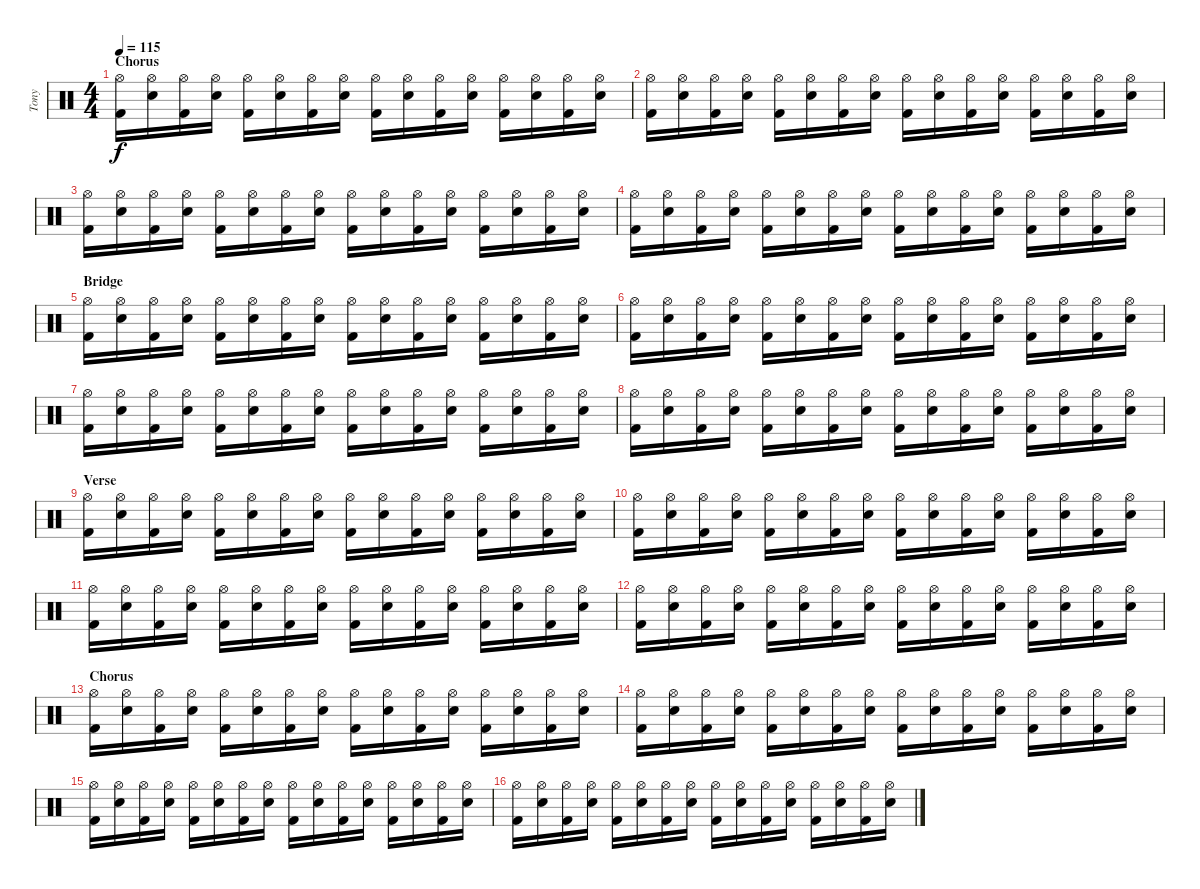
\track ("Tony" "Tony") {instrument percussion}
\staff {score}
\articulation defaults
\ts (4 4)
\section ("" "Chorus")
\tempo 115
\clef neutral
\ks c
("Kick (hit) 2" "Hi-Hat (open)").16{dy f} ("Electric Snare (hit)" "Hi-Hat (open)").16 ("Kick (hit) 2" "Hi-Hat (open)").16 ("Electric Snare (hit)" "Hi-Hat (open)").16 ("Kick (hit) 2" "Hi-Hat (open)").16 ("Electric Snare (hit)" "Hi-Hat (open)").16 ("Kick (hit) 2" "Hi-Hat (open)").16 ("Electric Snare (hit)" "Hi-Hat (open)").16 ("Kick (hit) 2" "Hi-Hat (open)").16 ("Electric Snare (hit)" "Hi-Hat (open)").16 ("Kick (hit) 2" "Hi-Hat (open)").16 ("Electric Snare (hit)" "Hi-Hat (open)").16 ("Kick (hit) 2" "Hi-Hat (open)").16 ("Electric Snare (hit)" "Hi-Hat (open)").16 ("Kick (hit) 2" "Hi-Hat (open)").16 ("Electric Snare (hit)" "Hi-Hat (open)").16 |
("Kick (hit) 2" "Hi-Hat (open)").16 ("Electric Snare (hit)" "Hi-Hat (open)").16 ("Kick (hit) 2" "Hi-Hat (open)").16 ("Electric Snare (hit)" "Hi-Hat (open)").16 ("Kick (hit) 2" "Hi-Hat (open)").16 ("Electric Snare (hit)" "Hi-Hat (open)").16 ("Kick (hit) 2" "Hi-Hat (open)").16 ("Electric Snare (hit)" "Hi-Hat (open)").16 ("Kick (hit) 2" "Hi-Hat (open)").16 ("Electric Snare (hit)" "Hi-Hat (open)").16 ("Kick (hit) 2" "Hi-Hat (open)").16 ("Electric Snare (hit)" "Hi-Hat (open)").16 ("Kick (hit) 2" "Hi-Hat (open)").16 ("Electric Snare (hit)" "Hi-Hat (open)").16 ("Kick (hit) 2" "Hi-Hat (open)").16 ("Electric Snare (hit)" "Hi-Hat (open)").16 |
("Kick (hit) 2" "Hi-Hat (open)").16 ("Electric Snare (hit)" "Hi-Hat (open)").16 ("Kick (hit) 2" "Hi-Hat (open)").16 ("Electric Snare (hit)" "Hi-Hat (open)").16 ("Kick (hit) 2" "Hi-Hat (open)").16 ("Electric Snare (hit)" "Hi-Hat (open)").16 ("Kick (hit) 2" "Hi-Hat (open)").16 ("Electric Snare (hit)" "Hi-Hat (open)").16 ("Kick (hit) 2" "Hi-Hat (open)").16 ("Electric Snare (hit)" "Hi-Hat (open)").16 ("Kick (hit) 2" "Hi-Hat (open)").16 ("Electric Snare (hit)" "Hi-Hat (open)").16 ("Kick (hit) 2" "Hi-Hat (open)").16 ("Electric Snare (hit)" "Hi-Hat (open)").16 ("Kick (hit) 2" "Hi-Hat (open)").16 ("Electric Snare (hit)" "Hi-Hat (open)").16 |
("Kick (hit) 2" "Hi-Hat (open)").16 ("Electric Snare (hit)" "Hi-Hat (open)").16 ("Kick (hit) 2" "Hi-Hat (open)").16 ("Electric Snare (hit)" "Hi-Hat (open)").16 ("Kick (hit) 2" "Hi-Hat (open)").16 ("Electric Snare (hit)" "Hi-Hat (open)").16 ("Kick (hit) 2" "Hi-Hat (open)").16 ("Electric Snare (hit)" "Hi-Hat (open)").16 ("Kick (hit) 2" "Hi-Hat (open)").16 ("Electric Snare (hit)" "Hi-Hat (open)").16 ("Kick (hit) 2" "Hi-Hat (open)").16 ("Electric Snare (hit)" "Hi-Hat (open)").16 ("Kick (hit) 2" "Hi-Hat (open)").16 ("Electric Snare (hit)" "Hi-Hat (open)").16 ("Kick (hit) 2" "Hi-Hat (open)").16 ("Electric Snare (hit)" "Hi-Hat (open)").16 |
\section ("" "Bridge")
("Kick (hit) 2" "Hi-Hat (open)").16 ("Electric Snare (hit)" "Hi-Hat (open)").16 ("Kick (hit) 2" "Hi-Hat (open)").16 ("Electric Snare (hit)" "Hi-Hat (open)").16 ("Kick (hit) 2" "Hi-Hat (open)").16 ("Electric Snare (hit)" "Hi-Hat (open)").16 ("Kick (hit) 2" "Hi-Hat (open)").16 ("Electric Snare (hit)" "Hi-Hat (open)").16 ("Kick (hit) 2" "Hi-Hat (open)").16 ("Electric Snare (hit)" "Hi-Hat (open)").16 ("Kick (hit) 2" "Hi-Hat (open)").16 ("Electric Snare (hit)" "Hi-Hat (open)").16 ("Kick (hit) 2" "Hi-Hat (open)").16 ("Electric Snare (hit)" "Hi-Hat (open)").16 ("Kick (hit) 2" "Hi-Hat (open)").16 ("Electric Snare (hit)" "Hi-Hat (open)").16 |
("Kick (hit) 2" "Hi-Hat (open)").16 ("Electric Snare (hit)" "Hi-Hat (open)").16 ("Kick (hit) 2" "Hi-Hat (open)").16 ("Electric Snare (hit)" "Hi-Hat (open)").16 ("Kick (hit) 2" "Hi-Hat (open)").16 ("Electric Snare (hit)" "Hi-Hat (open)").16 ("Kick (hit) 2" "Hi-Hat (open)").16 ("Electric Snare (hit)" "Hi-Hat (open)").16 ("Kick (hit) 2" "Hi-Hat (open)").16 ("Electric Snare (hit)" "Hi-Hat (open)").16 ("Kick (hit) 2" "Hi-Hat (open)").16 ("Electric Snare (hit)" "Hi-Hat (open)").16 ("Kick (hit) 2" "Hi-Hat (open)").16 ("Electric Snare (hit)" "Hi-Hat (open)").16 ("Kick (hit) 2" "Hi-Hat (open)").16 ("Electric Snare (hit)" "Hi-Hat (open)").16 |
("Kick (hit) 2" "Hi-Hat (open)").16 ("Electric Snare (hit)" "Hi-Hat (open)").16 ("Kick (hit) 2" "Hi-Hat (open)").16 ("Electric Snare (hit)" "Hi-Hat (open)").16 ("Kick (hit) 2" "Hi-Hat (open)").16 ("Electric Snare (hit)" "Hi-Hat (open)").16 ("Kick (hit) 2" "Hi-Hat (open)").16 ("Electric Snare (hit)" "Hi-Hat (open)").16 ("Kick (hit) 2" "Hi-Hat (open)").16 ("Electric Snare (hit)" "Hi-Hat (open)").16 ("Kick (hit) 2" "Hi-Hat (open)").16 ("Electric Snare (hit)" "Hi-Hat (open)").16 ("Kick (hit) 2" "Hi-Hat (open)").16 ("Electric Snare (hit)" "Hi-Hat (open)").16 ("Kick (hit) 2" "Hi-Hat (open)").16 ("Electric Snare (hit)" "Hi-Hat (open)").16 |
("Kick (hit) 2" "Hi-Hat (open)").16 ("Electric Snare (hit)" "Hi-Hat (open)").16 ("Kick (hit) 2" "Hi-Hat (open)").16 ("Electric Snare (hit)" "Hi-Hat (open)").16 ("Kick (hit) 2" "Hi-Hat (open)").16 ("Electric Snare (hit)" "Hi-Hat (open)").16 ("Kick (hit) 2" "Hi-Hat (open)").16 ("Electric Snare (hit)" "Hi-Hat (open)").16 ("Kick (hit) 2" "Hi-Hat (open)").16 ("Electric Snare (hit)" "Hi-Hat (open)").16 ("Kick (hit) 2" "Hi-Hat (open)").16 ("Electric Snare (hit)" "Hi-Hat (open)").16 ("Kick (hit) 2" "Hi-Hat (open)").16 ("Electric Snare (hit)" "Hi-Hat (open)").16 ("Kick (hit) 2" "Hi-Hat (open)").16 ("Electric Snare (hit)" "Hi-Hat (open)").16 |
\section ("" "Verse")
("Kick (hit) 2" "Hi-Hat (open)").16 ("Electric Snare (hit)" "Hi-Hat (open)").16 ("Kick (hit) 2" "Hi-Hat (open)").16 ("Electric Snare (hit)" "Hi-Hat (open)").16 ("Kick (hit) 2" "Hi-Hat (open)").16 ("Electric Snare (hit)" "Hi-Hat (open)").16 ("Kick (hit) 2" "Hi-Hat (open)").16 ("Electric Snare (hit)" "Hi-Hat (open)").16 ("Kick (hit) 2" "Hi-Hat (open)").16 ("Electric Snare (hit)" "Hi-Hat (open)").16 ("Kick (hit) 2" "Hi-Hat (open)").16 ("Electric Snare (hit)" "Hi-Hat (open)").16 ("Kick (hit) 2" "Hi-Hat (open)").16 ("Electric Snare (hit)" "Hi-Hat (open)").16 ("Kick (hit) 2" "Hi-Hat (open)").16 ("Electric Snare (hit)" "Hi-Hat (open)").16 |
("Kick (hit) 2" "Hi-Hat (open)").16 ("Electric Snare (hit)" "Hi-Hat (open)").16 ("Kick (hit) 2" "Hi-Hat (open)").16 ("Electric Snare (hit)" "Hi-Hat (open)").16 ("Kick (hit) 2" "Hi-Hat (open)").16 ("Electric Snare (hit)" "Hi-Hat (open)").16 ("Kick (hit) 2" "Hi-Hat (open)").16 ("Electric Snare (hit)" "Hi-Hat (open)").16 ("Kick (hit) 2" "Hi-Hat (open)").16 ("Electric Snare (hit)" "Hi-Hat (open)").16 ("Kick (hit) 2" "Hi-Hat (open)").16 ("Electric Snare (hit)" "Hi-Hat (open)").16 ("Kick (hit) 2" "Hi-Hat (open)").16 ("Electric Snare (hit)" "Hi-Hat (open)").16 ("Kick (hit) 2" "Hi-Hat (open)").16 ("Electric Snare (hit)" "Hi-Hat (open)").16 |
("Kick (hit) 2" "Hi-Hat (open)").16 ("Electric Snare (hit)" "Hi-Hat (open)").16 ("Kick (hit) 2" "Hi-Hat (open)").16 ("Electric Snare (hit)" "Hi-Hat (open)").16 ("Kick (hit) 2" "Hi-Hat (open)").16 ("Electric Snare (hit)" "Hi-Hat (open)").16 ("Kick (hit) 2" "Hi-Hat (open)").16 ("Electric Snare (hit)" "Hi-Hat (open)").16 ("Kick (hit) 2" "Hi-Hat (open)").16 ("Electric Snare (hit)" "Hi-Hat (open)").16 ("Kick (hit) 2" "Hi-Hat (open)").16 ("Electric Snare (hit)" "Hi-Hat (open)").16 ("Kick (hit) 2" "Hi-Hat (open)").16 ("Electric Snare (hit)" "Hi-Hat (open)").16 ("Kick (hit) 2" "Hi-Hat (open)").16 ("Electric Snare (hit)" "Hi-Hat (open)").16 |
("Kick (hit) 2" "Hi-Hat (open)").16 ("Electric Snare (hit)" "Hi-Hat (open)").16 ("Kick (hit) 2" "Hi-Hat (open)").16 ("Electric Snare (hit)" "Hi-Hat (open)").16 ("Kick (hit) 2" "Hi-Hat (open)").16 ("Electric Snare (hit)" "Hi-Hat (open)").16 ("Kick (hit) 2" "Hi-Hat (open)").16 ("Electric Snare (hit)" "Hi-Hat (open)").16 ("Kick (hit) 2" "Hi-Hat (open)").16 ("Electric Snare (hit)" "Hi-Hat (open)").16 ("Kick (hit) 2" "Hi-Hat (open)").16 ("Electric Snare (hit)" "Hi-Hat (open)").16 ("Kick (hit) 2" "Hi-Hat (open)").16 ("Electric Snare (hit)" "Hi-Hat (open)").16 ("Kick (hit) 2" "Hi-Hat (open)").16 ("Electric Snare (hit)" "Hi-Hat (open)").16 |
\section ("" "Chorus")
("Kick (hit) 2" "Hi-Hat (open)").16 ("Electric Snare (hit)" "Hi-Hat (open)").16 ("Kick (hit) 2" "Hi-Hat (open)").16 ("Electric Snare (hit)" "Hi-Hat (open)").16 ("Kick (hit) 2" "Hi-Hat (open)").16 ("Electric Snare (hit)" "Hi-Hat (open)").16 ("Kick (hit) 2" "Hi-Hat (open)").16 ("Electric Snare (hit)" "Hi-Hat (open)").16 ("Kick (hit) 2" "Hi-Hat (open)").16 ("Electric Snare (hit)" "Hi-Hat (open)").16 ("Kick (hit) 2" "Hi-Hat (open)").16 ("Electric Snare (hit)" "Hi-Hat (open)").16 ("Kick (hit) 2" "Hi-Hat (open)").16 ("Electric Snare (hit)" "Hi-Hat (open)").16 ("Kick (hit) 2" "Hi-Hat (open)").16 ("Electric Snare (hit)" "Hi-Hat (open)").16 |
("Kick (hit) 2" "Hi-Hat (open)").16 ("Electric Snare (hit)" "Hi-Hat (open)").16 ("Kick (hit) 2" "Hi-Hat (open)").16 ("Electric Snare (hit)" "Hi-Hat (open)").16 ("Kick (hit) 2" "Hi-Hat (open)").16 ("Electric Snare (hit)" "Hi-Hat (open)").16 ("Kick (hit) 2" "Hi-Hat (open)").16 ("Electric Snare (hit)" "Hi-Hat (open)").16 ("Kick (hit) 2" "Hi-Hat (open)").16 ("Electric Snare (hit)" "Hi-Hat (open)").16 ("Kick (hit) 2" "Hi-Hat (open)").16 ("Electric Snare (hit)" "Hi-Hat (open)").16 ("Kick (hit) 2" "Hi-Hat (open)").16 ("Electric Snare (hit)" "Hi-Hat (open)").16 ("Kick (hit) 2" "Hi-Hat (open)").16 ("Electric Snare (hit)" "Hi-Hat (open)").16 |
("Kick (hit) 2" "Hi-Hat (open)").16 ("Electric Snare (hit)" "Hi-Hat (open)").16 ("Kick (hit) 2" "Hi-Hat (open)").16 ("Electric Snare (hit)" "Hi-Hat (open)").16 ("Kick (hit) 2" "Hi-Hat (open)").16 ("Electric Snare (hit)" "Hi-Hat (open)").16 ("Kick (hit) 2" "Hi-Hat (open)").16 ("Electric Snare (hit)" "Hi-Hat (open)").16 ("Kick (hit) 2" "Hi-Hat (open)").16 ("Electric Snare (hit)" "Hi-Hat (open)").16 ("Kick (hit) 2" "Hi-Hat (open)").16 ("Electric Snare (hit)" "Hi-Hat (open)").16 ("Kick (hit) 2" "Hi-Hat (open)").16 ("Electric Snare (hit)" "Hi-Hat (open)").16 ("Kick (hit) 2" "Hi-Hat (open)").16 ("Electric Snare (hit)" "Hi-Hat (open)").16 |
("Kick (hit) 2" "Hi-Hat (open)").16 ("Electric Snare (hit)" "Hi-Hat (open)").16 ("Kick (hit) 2" "Hi-Hat (open)").16 ("Electric Snare (hit)" "Hi-Hat (open)").16 ("Kick (hit) 2" "Hi-Hat (open)").16 ("Electric Snare (hit)" "Hi-Hat (open)").16 ("Kick (hit) 2" "Hi-Hat (open)").16 ("Electric Snare (hit)" "Hi-Hat (open)").16 ("Kick (hit) 2" "Hi-Hat (open)").16 ("Electric Snare (hit)" "Hi-Hat (open)").16 ("Kick (hit) 2" "Hi-Hat (open)").16 ("Electric Snare (hit)" "Hi-Hat (open)").16 ("Kick (hit) 2" "Hi-Hat (open)").16 ("Electric Snare (hit)" "Hi-Hat (open)").16 ("Kick (hit) 2" "Hi-Hat (open)").16 ("Electric Snare (hit)" "Hi-Hat (open)").16
